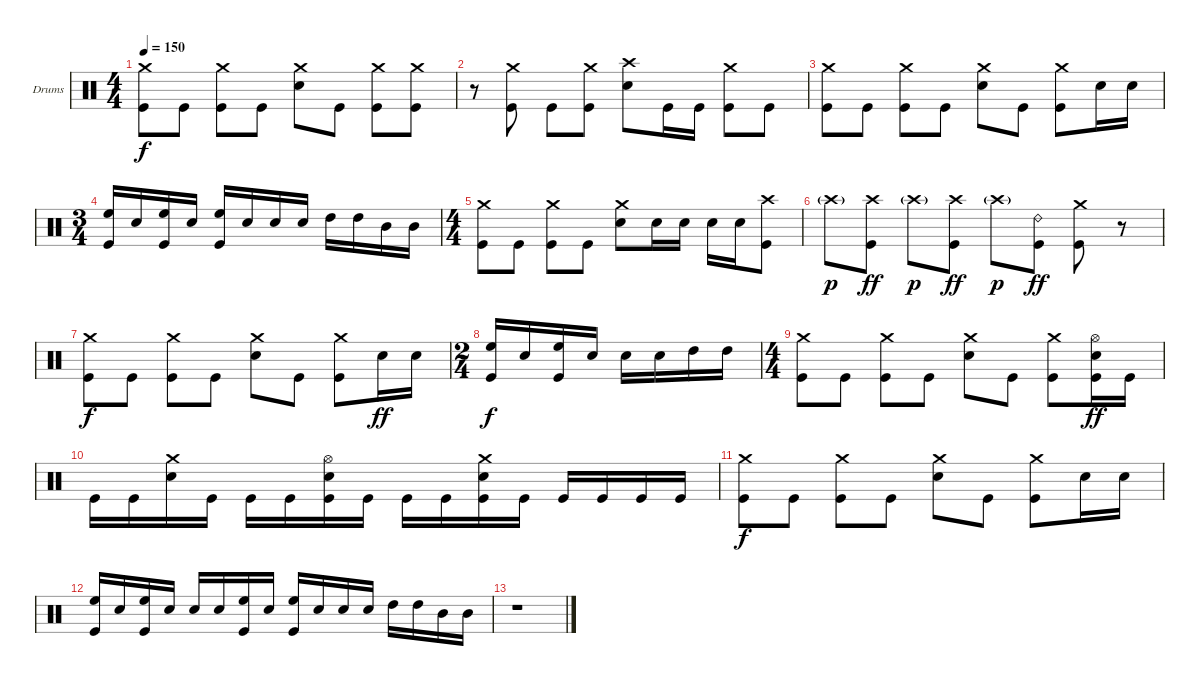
\bracketExtendMode groupsimilarinstruments
\firstSystemTrackNameOrientation horizontal
\otherSystemsTrackNameOrientation horizontal
\track ("Drumkit" "Drums") {instrument percussion}
\staff {score}
\articulation defaults
\ts (4 4)
\tempo 150
\clef neutral
\ks c
("Crash medium (hit)" "Kick (hit)").8{dy f} "Kick (hit)".8 ("Crash medium (hit)" "Kick (hit)").8 "Kick (hit)".8 ("Crash medium (hit)" "Snare (hit) 2").8 "Kick (hit)".8 ("Crash medium (hit)" "Kick (hit)").8 ("Crash medium (hit)" "Kick (hit)").8 |
r.8 ("Crash medium (hit)" "Kick (hit)").8 "Kick (hit)".8 ("Crash medium (hit)" "Kick (hit)").8 ("Crash high (hit)" "Snare (hit) 2").8 "Kick (hit)".16 "Kick (hit)".16 ("Crash medium (hit)" "Kick (hit)").8 "Kick (hit)".8 |
("Crash medium (hit)" "Kick (hit)").8 "Kick (hit)".8 ("Crash medium (hit)" "Kick (hit)").8 "Kick (hit)".8 ("Crash medium (hit)" "Snare (hit) 2").8 "Kick (hit)".8 ("Crash medium (hit)" "Kick (hit)").8 "Snare (hit) 2".16 "Snare (hit) 2".16 |
\ts (3 4)
\beaming (8 2 2 2)
("High Floor Tom (hit)" "Kick (hit)").16 "Snare (hit) 2".16 ("High Floor Tom (hit)" "Kick (hit)").16 "Snare (hit) 2".16 ("High Floor Tom (hit)" "Kick (hit)").16 "Snare (hit) 2".16 "Snare (hit) 2".16 "Snare (hit) 2".16 "High Tom (hit)".16 "High Tom (hit)".16 "Mid Tom (hit)".16 "Mid Tom (hit)".16 |
\ts (4 4)
\beaming (8 2 2 2 2)
("Crash medium (hit)" "Kick (hit)").8 "Kick (hit)".8 ("Crash medium (hit)" "Kick (hit)").8 "Kick (hit)".8 ("Crash medium (hit)" "Snare (hit) 2").8 "Snare (hit) 2".16 "Snare (hit) 2".16 "Snare (hit) 2".16 "Snare (hit) 2".16 ("Crash high (hit)" "Kick (hit)").8 |
"Crash high (hit)"{g}.8{dy p} ("Crash high (hit)" "Kick (hit)").8{dy ff} "Crash high (hit)"{g}.8{dy p} ("Crash high (hit)" "Kick (hit)").8{dy ff} "Crash high (hit)"{g}.8{dy p} ("Ride (bell) 2" "Kick (hit)").8{dy ff} ("Crash medium (hit)" "Kick (hit)").8 r.8 |
("Crash medium (hit)" "Kick (hit)").8{dy f} "Kick (hit)".8 ("Crash medium (hit)" "Kick (hit)").8 "Kick (hit)".8 ("Crash medium (hit)" "Snare (hit) 2").8 "Kick (hit)".8 ("Crash medium (hit)" "Kick (hit)").8 "Snare (hit) 2".16{dy ff} "Snare (hit) 2".16 |
\ts (2 4)
\beaming (8 2 2)
("High Floor Tom (hit)" "Kick (hit)").16{dy f} "Snare (hit) 2".16 ("High Floor Tom (hit)" "Kick (hit)").16 "Snare (hit) 2".16 "Snare (hit) 2".16 "Snare (hit) 2".16 "High Tom (hit)".16 "High Tom (hit)".16 |
\ts (4 4)
\beaming (8 2 2 2 2)
("Crash medium (hit)" "Kick (hit)").8 "Kick (hit)".8 ("Crash medium (hit)" "Kick (hit)").8 "Kick (hit)".8 ("Crash medium (hit)" "Snare (hit) 2").8 "Kick (hit)".8 ("Crash medium (hit)" "Kick (hit)").8 ("Hi-Hat (open)" "Snare (hit) 2" "Kick (hit)").16{dy ff} "Kick (hit)".16 |
"Kick (hit)".16 "Kick (hit)".16 ("Crash medium (hit)" "Snare (hit) 2").16 "Kick (hit)".16 "Kick (hit)".16 "Kick (hit)".16 ("Hi-Hat (open)" "Snare (hit) 2" "Kick (hit)").16 "Kick (hit)".16 "Kick (hit)".16 "Kick (hit)".16 ("Crash medium (hit)" "Snare (hit) 2" "Kick (hit)").16 "Kick (hit)".16 "Kick (hit)".16 "Kick (hit)".16 "Kick (hit)".16 "Kick (hit)".16 |
("Crash medium (hit)" "Kick (hit)").8{dy f} "Kick (hit)".8 ("Crash medium (hit)" "Kick (hit)").8 "Kick (hit)".8 ("Crash medium (hit)" "Snare (hit) 2").8 "Kick (hit)".8 ("Crash medium (hit)" "Kick (hit)").8 "Snare (hit) 2".16 "Snare (hit) 2".16 |
("High Floor Tom (hit)" "Kick (hit)").16 "Snare (hit) 2".16 ("High Floor Tom (hit)" "Kick (hit)").16 "Snare (hit) 2".16 "Snare (hit) 2".16 "Snare (hit) 2".16 ("High Floor Tom (hit)" "Kick (hit)").16 "Snare (hit) 2".16 ("High Floor Tom (hit)" "Kick (hit)").16 "Snare (hit) 2".16 "Snare (hit) 2".16 "Snare (hit) 2".16 "High Tom (hit)".16 "High Tom (hit)".16 "Mid Tom (hit)".16 "Mid Tom (hit)".16 |
r.1
